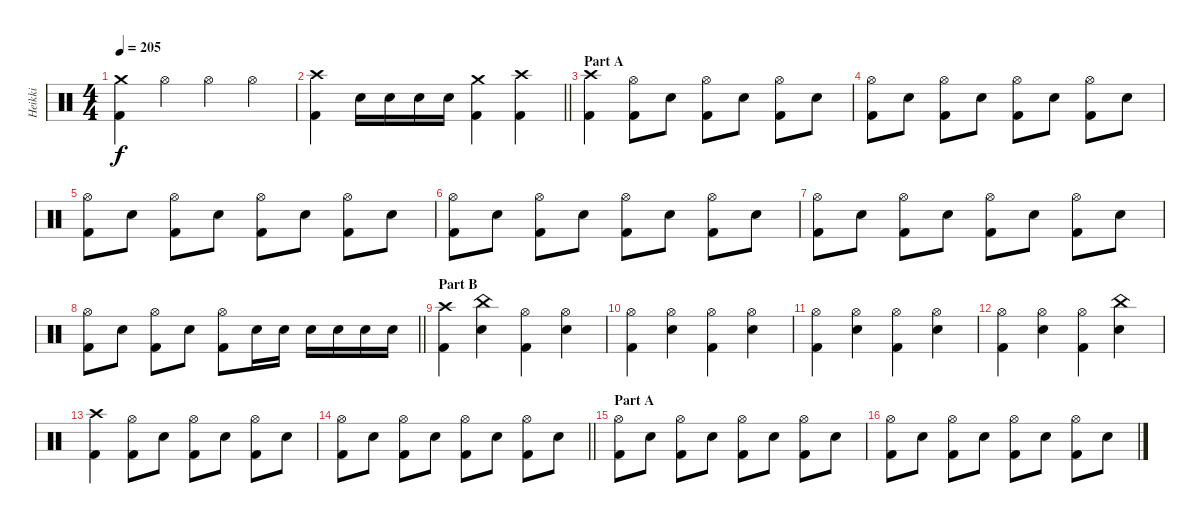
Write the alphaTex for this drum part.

\track ("Heikki" "Heikki") {instrument percussion}
\staff {score}
\articulation defaults
\ts (4 4)
\tempo 205
\clef neutral
\ks c
("Crash medium (hit)" "Kick (hit) 2").4{dy f} "Hi-Hat (open)".4 "Hi-Hat (open)".4 "Hi-Hat (open)".4 |
\barLineRight lightlight
("Crash high (hit)" "Kick (hit) 2").4 "Electric Snare (hit)".16 "Electric Snare (hit)".16 "Electric Snare (hit)".16 "Electric Snare (hit)".16 ("Crash medium (hit)" "Kick (hit) 2").4 ("Crash high (hit)" "Kick (hit) 2").4 |
\section ("" "Part A")
("Crash high (hit)" "Kick (hit) 2").4 ("Hi-Hat (open)" "Kick (hit) 2").8 "Electric Snare (hit)".8 ("Hi-Hat (open)" "Kick (hit) 2").8 "Electric Snare (hit)".8 ("Hi-Hat (open)" "Kick (hit) 2").8 "Electric Snare (hit)".8 |
("Hi-Hat (open)" "Kick (hit) 2").8 "Electric Snare (hit)".8 ("Hi-Hat (open)" "Kick (hit) 2").8 "Electric Snare (hit)".8 ("Hi-Hat (open)" "Kick (hit) 2").8 "Electric Snare (hit)".8 ("Hi-Hat (open)" "Kick (hit) 2").8 "Electric Snare (hit)".8 |
("Hi-Hat (open)" "Kick (hit) 2").8 "Electric Snare (hit)".8 ("Hi-Hat (open)" "Kick (hit) 2").8 "Electric Snare (hit)".8 ("Hi-Hat (open)" "Kick (hit) 2").8 "Electric Snare (hit)".8 ("Hi-Hat (open)" "Kick (hit) 2").8 "Electric Snare (hit)".8 |
("Hi-Hat (open)" "Kick (hit) 2").8 "Electric Snare (hit)".8 ("Hi-Hat (open)" "Kick (hit) 2").8 "Electric Snare (hit)".8 ("Hi-Hat (open)" "Kick (hit) 2").8 "Electric Snare (hit)".8 ("Hi-Hat (open)" "Kick (hit) 2").8 "Electric Snare (hit)".8 |
("Hi-Hat (open)" "Kick (hit) 2").8 "Electric Snare (hit)".8 ("Hi-Hat (open)" "Kick (hit) 2").8 "Electric Snare (hit)".8 ("Hi-Hat (open)" "Kick (hit) 2").8 "Electric Snare (hit)".8 ("Hi-Hat (open)" "Kick (hit) 2").8 "Electric Snare (hit)".8 |
\barLineRight lightlight
("Hi-Hat (open)" "Kick (hit) 2").8 "Electric Snare (hit)".8 ("Hi-Hat (open)" "Kick (hit) 2").8 "Electric Snare (hit)".8 ("Hi-Hat (open)" "Kick (hit) 2").8 "Electric Snare (hit)".16 "Electric Snare (hit)".16 "Electric Snare (hit)".16 "Electric Snare (hit)".16 "Electric Snare (hit)".16 "Electric Snare (hit)".16 |
\section ("" "Part B")
("Crash high (hit)" "Kick (hit) 2").4 ("China (hit)" "Electric Snare (hit)").4 ("Hi-Hat (open)" "Kick (hit) 2").4 ("Hi-Hat (open)" "Electric Snare (hit)").4 |
("Hi-Hat (open)" "Kick (hit) 2").4 ("Hi-Hat (open)" "Electric Snare (hit)").4 ("Hi-Hat (open)" "Kick (hit) 2").4 ("Hi-Hat (open)" "Electric Snare (hit)").4 |
("Hi-Hat (open)" "Kick (hit) 2").4 ("Hi-Hat (open)" "Electric Snare (hit)").4 ("Hi-Hat (open)" "Kick (hit) 2").4 ("Hi-Hat (open)" "Electric Snare (hit)").4 |
("Hi-Hat (open)" "Kick (hit) 2").4 ("Hi-Hat (open)" "Electric Snare (hit)").4 ("Hi-Hat (open)" "Kick (hit) 2").4 ("China (hit)" "Electric Snare (hit)").4 |
("Crash high (hit)" "Kick (hit) 2").4 ("Hi-Hat (open)" "Kick (hit) 2").8 "Electric Snare (hit)".8 ("Hi-Hat (open)" "Kick (hit) 2").8 "Electric Snare (hit)".8 ("Hi-Hat (open)" "Kick (hit) 2").8 "Electric Snare (hit)".8 |
\barLineRight lightlight
("Hi-Hat (open)" "Kick (hit) 2").8 "Electric Snare (hit)".8 ("Hi-Hat (open)" "Kick (hit) 2").8 "Electric Snare (hit)".8 ("Hi-Hat (open)" "Kick (hit) 2").8 "Electric Snare (hit)".8 ("Hi-Hat (open)" "Kick (hit) 2").8 "Electric Snare (hit)".8 |
\section ("" "Part A")
("Hi-Hat (open)" "Kick (hit) 2").8 "Electric Snare (hit)".8 ("Hi-Hat (open)" "Kick (hit) 2").8 "Electric Snare (hit)".8 ("Hi-Hat (open)" "Kick (hit) 2").8 "Electric Snare (hit)".8 ("Hi-Hat (open)" "Kick (hit) 2").8 "Electric Snare (hit)".8 |
("Hi-Hat (open)" "Kick (hit) 2").8 "Electric Snare (hit)".8 ("Hi-Hat (open)" "Kick (hit) 2").8 "Electric Snare (hit)".8 ("Hi-Hat (open)" "Kick (hit) 2").8 "Electric Snare (hit)".8 ("Hi-Hat (open)" "Kick (hit) 2").8 "Electric Snare (hit)".8
